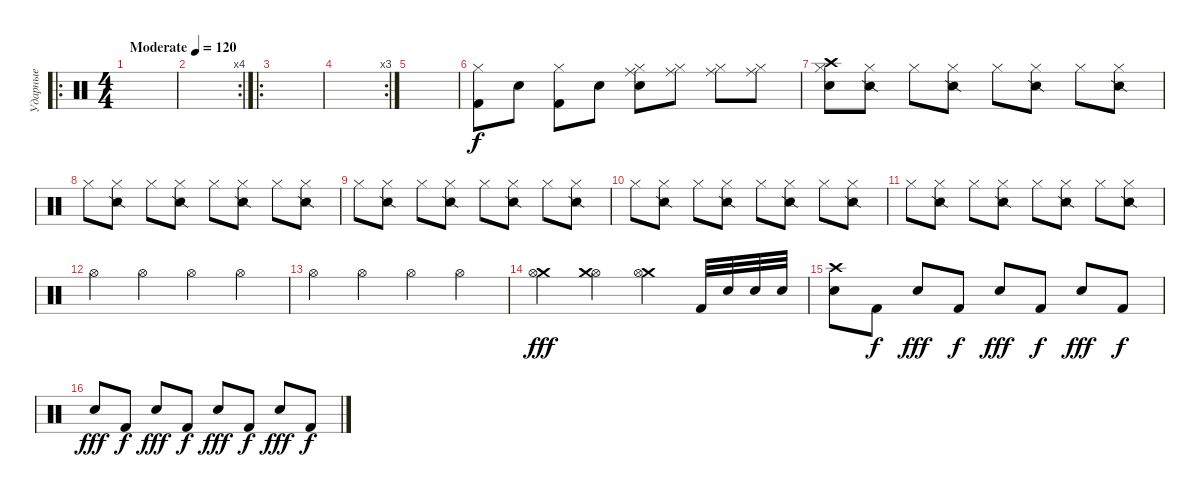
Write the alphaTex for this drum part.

\track ("Ударные" "Ударные") {instrument percussion}
\staff {score}
\articulation defaults
\ro
\ts (4 4)
\tempo (120 "Moderate")
\tempo 170
\tempo (120 "Moderate")
\clef neutral
\ks c
|
\rc 4
|
\ro
|
\rc 3
|
|
("Hi-Hat (closed)" "Kick (hit) 2").8 "Electric Snare (hit)".8 ("Hi-Hat (closed)" "Kick (hit) 2").8 "Electric Snare (hit)".8 ("Ride (middle)" "Hi-Hat (closed)" "Electric Snare (hit)").8 ("Ride (middle)" "Hi-Hat (closed)").8 ("Ride (middle)" "Hi-Hat (closed)").8 ("Ride (middle)" "Hi-Hat (closed)").8 |
("Crash high (hit)" "Snare (hit) 2" "Hi-Hat (closed)").8{volume 11} ("Hi-Hat (closed)" "Snare (side stick) 2").8 "Hi-Hat (closed)".8 ("Hi-Hat (closed)" "Snare (side stick) 2").8 "Hi-Hat (closed)".8 ("Hi-Hat (closed)" "Snare (side stick) 2").8 "Hi-Hat (closed)".8 ("Hi-Hat (closed)" "Snare (side stick) 2").8 |
"Hi-Hat (closed)".8 ("Hi-Hat (closed)" "Snare (side stick) 2").8 "Hi-Hat (closed)".8 ("Hi-Hat (closed)" "Snare (side stick) 2").8 "Hi-Hat (closed)".8 ("Hi-Hat (closed)" "Snare (side stick) 2").8 "Hi-Hat (closed)".8 ("Hi-Hat (closed)" "Snare (side stick) 2").8 |
"Hi-Hat (closed)".8 ("Hi-Hat (closed)" "Snare (side stick) 2").8 "Hi-Hat (closed)".8 ("Hi-Hat (closed)" "Snare (side stick) 2").8 "Hi-Hat (closed)".8 ("Hi-Hat (closed)" "Snare (side stick) 2").8 "Hi-Hat (closed)".8 ("Hi-Hat (closed)" "Snare (side stick) 2").8 |
"Hi-Hat (closed)".8 ("Hi-Hat (closed)" "Snare (side stick) 2").8 "Hi-Hat (closed)".8 ("Hi-Hat (closed)" "Snare (side stick) 2").8 "Hi-Hat (closed)".8 ("Hi-Hat (closed)" "Snare (side stick) 2").8 "Hi-Hat (closed)".8 ("Hi-Hat (closed)" "Snare (side stick) 2").8 |
"Hi-Hat (closed)".8 ("Hi-Hat (closed)" "Snare (side stick) 2").8 "Hi-Hat (closed)".8 ("Hi-Hat (closed)" "Snare (side stick) 2").8 "Hi-Hat (closed)".8 ("Hi-Hat (closed)" "Snare (side stick) 2").8 "Hi-Hat (closed)".8 ("Hi-Hat (closed)" "Snare (side stick) 2").8 |
"Hi-Hat (open)".4{volume 10} "Hi-Hat (open)".4{volume 13} "Hi-Hat (open)".4 "Hi-Hat (open)".4 |
"Hi-Hat (open)".4 "Hi-Hat (open)".4 "Hi-Hat (open)".4 "Hi-Hat (open)".4 |
("Crash medium (hit)" "Hi-Hat (open)").4{dy fff} ("Hi-Hat (open)" "Crash medium (hit)").4 ("Crash medium (hit)" "Hi-Hat (open)").4 "Kick (hit) 2".32 "Electric Snare (hit)".32 "Electric Snare (hit)".32 "Electric Snare (hit)".32 |
("Crash high (hit)" "Snare (hit) 2").8{volume 16} "Kick (hit) 2".8{dy f} "Electric Snare (hit)".8{dy fff} "Kick (hit) 2".8{dy f} "Electric Snare (hit)".8{dy fff} "Kick (hit) 2".8{dy f} "Electric Snare (hit)".8{dy fff} "Kick (hit) 2".8{dy f} |
"Electric Snare (hit)".8{dy fff} "Kick (hit) 2".8{dy f} "Electric Snare (hit)".8{dy fff} "Kick (hit) 2".8{dy f} "Electric Snare (hit)".8{dy fff} "Kick (hit) 2".8{dy f} "Electric Snare (hit)".8{dy fff} "Kick (hit) 2".8{dy f}
